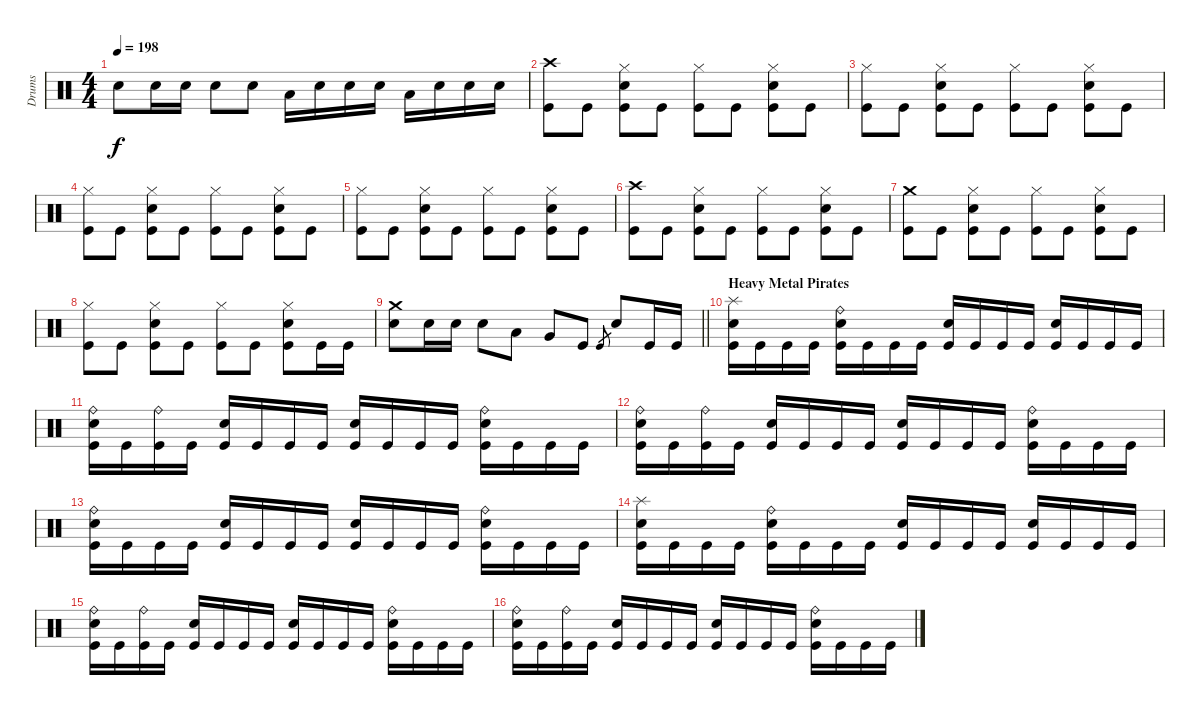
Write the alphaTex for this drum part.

\track ("Drums" "Drums") {instrument percussion}
\staff {score}
\articulation defaults
\ts (4 4)
\tempo 198
\clef neutral
\ks c "Electric Snare (hit)".8{dy f} "Electric Snare (hit)".16 "Electric Snare (hit)".16 "Electric Snare (hit)".8 "Electric Snare (hit)".8 "Low Tom (hit)".16 "Electric Snare (hit)".16 "Electric Snare (hit)".16 "Electric Snare (hit)".16 "Low Tom (hit)".16 "Electric Snare (hit)".16 "Electric Snare (hit)".16 "Electric Snare (hit)".16
|
("Crash high (hit)" "Kick (hit)").8 "Kick (hit)".8 ("Hi-Hat (closed)" "Electric Snare (hit)" "Kick (hit)").8 "Kick (hit)".8 ("Hi-Hat (closed)" "Kick (hit)").8 "Kick (hit)".8 ("Hi-Hat (closed)" "Electric Snare (hit)" "Kick (hit)").8 "Kick (hit)".8 |
("Hi-Hat (closed)" "Kick (hit)").8 "Kick (hit)".8 ("Hi-Hat (closed)" "Electric Snare (hit)" "Kick (hit)").8 "Kick (hit)".8 ("Hi-Hat (closed)" "Kick (hit)").8 "Kick (hit)".8 ("Hi-Hat (closed)" "Electric Snare (hit)" "Kick (hit)").8 "Kick (hit)".8 |
("Hi-Hat (closed)" "Kick (hit)").8 "Kick (hit)".8 ("Hi-Hat (closed)" "Electric Snare (hit)" "Kick (hit)").8 "Kick (hit)".8 ("Hi-Hat (closed)" "Kick (hit)").8 "Kick (hit)".8 ("Hi-Hat (closed)" "Electric Snare (hit)" "Kick (hit)").8 "Kick (hit)".8 |
("Hi-Hat (closed)" "Kick (hit)").8 "Kick (hit)".8 ("Hi-Hat (closed)" "Electric Snare (hit)" "Kick (hit)").8 "Kick (hit)".8 ("Hi-Hat (closed)" "Kick (hit)").8 "Kick (hit)".8 ("Hi-Hat (closed)" "Electric Snare (hit)" "Kick (hit)").8 "Kick (hit)".8 |
("Crash high (hit)" "Kick (hit)").8 "Kick (hit)".8 ("Hi-Hat (closed)" "Electric Snare (hit)" "Kick (hit)").8 "Kick (hit)".8 ("Hi-Hat (closed)" "Kick (hit)").8 "Kick (hit)".8 ("Hi-Hat (closed)" "Electric Snare (hit)" "Kick (hit)").8 "Kick (hit)".8 |
("Crash medium (hit)" "Kick (hit)").8 "Kick (hit)".8 ("Hi-Hat (closed)" "Electric Snare (hit)" "Kick (hit)").8 "Kick (hit)".8 ("Hi-Hat (closed)" "Kick (hit)").8 "Kick (hit)".8 ("Hi-Hat (closed)" "Electric Snare (hit)" "Kick (hit)").8 "Kick (hit)".8 |
("Hi-Hat (closed)" "Kick (hit)").8 "Kick (hit)".8 ("Hi-Hat (closed)" "Electric Snare (hit)" "Kick (hit)").8 "Kick (hit)".8 ("Hi-Hat (closed)" "Kick (hit)").8 "Kick (hit)".8 ("Hi-Hat (closed)" "Electric Snare (hit)" "Kick (hit)").8 "Kick (hit)".16 "Kick (hit)".16 |
\barLineRight lightlight
("Crash medium (hit)" "Electric Snare (hit)").8 "Electric Snare (hit)".16 "Electric Snare (hit)".16 "Electric Snare (hit)".8 "Low Tom (hit)".8 "Very Low Tom (hit)".8 "Kick (hit)".8 "Kick (hit)".8{gr} "Electric Snare (hit)".8 "Kick (hit)".16 "Kick (hit)".16 |
\section ("" "Heavy Metal Pirates")
("Splash (hit)" "Electric Snare (hit)" "Kick (hit)").16 "Kick (hit)".16 "Kick (hit)".16 "Kick (hit)".16 ("Ride (bell)" "Electric Snare (hit)" "Kick (hit)").16 "Kick (hit)".16 "Kick (hit)".16 "Kick (hit)".16 ("Electric Snare (hit)" "Kick (hit)").16 "Kick (hit)".16 "Kick (hit)".16 "Kick (hit)".16 ("Electric Snare (hit)" "Kick (hit)").16 "Kick (hit)".16 "Kick (hit)".16 "Kick (hit)".16 |
("Ride (bell)" "Electric Snare (hit)" "Kick (hit)").16 "Kick (hit)".16 ("Ride (bell)" "Kick (hit)").16 "Kick (hit)".16 ("Electric Snare (hit)" "Kick (hit)").16 "Kick (hit)".16 "Kick (hit)".16 "Kick (hit)".16 ("Electric Snare (hit)" "Kick (hit)").16 "Kick (hit)".16 "Kick (hit)".16 "Kick (hit)".16 ("Ride (bell)" "Electric Snare (hit)" "Kick (hit)").16 "Kick (hit)".16 "Kick (hit)".16 "Kick (hit)".16 |
("Ride (bell)" "Electric Snare (hit)" "Kick (hit)").16 "Kick (hit)".16 ("Ride (bell)" "Kick (hit)").16 "Kick (hit)".16 ("Electric Snare (hit)" "Kick (hit)").16 "Kick (hit)".16 "Kick (hit)".16 "Kick (hit)".16 ("Electric Snare (hit)" "Kick (hit)").16 "Kick (hit)".16 "Kick (hit)".16 "Kick (hit)".16 ("Ride (bell)" "Electric Snare (hit)" "Kick (hit)").16 "Kick (hit)".16 "Kick (hit)".16 "Kick (hit)".16 |
("Ride (bell)" "Electric Snare (hit)" "Kick (hit)").16 "Kick (hit)".16 "Kick (hit)".16 "Kick (hit)".16 ("Electric Snare (hit)" "Kick (hit)").16 "Kick (hit)".16 "Kick (hit)".16 "Kick (hit)".16 ("Electric Snare (hit)" "Kick (hit)").16 "Kick (hit)".16 "Kick (hit)".16 "Kick (hit)".16 ("Ride (bell)" "Electric Snare (hit)" "Kick (hit)").16 "Kick (hit)".16 "Kick (hit)".16 "Kick (hit)".16 |
("Splash (hit)" "Electric Snare (hit)" "Kick (hit)").16 "Kick (hit)".16 "Kick (hit)".16 "Kick (hit)".16 ("Ride (bell)" "Electric Snare (hit)" "Kick (hit)").16 "Kick (hit)".16 "Kick (hit)".16 "Kick (hit)".16 ("Electric Snare (hit)" "Kick (hit)").16 "Kick (hit)".16 "Kick (hit)".16 "Kick (hit)".16 ("Electric Snare (hit)" "Kick (hit)").16 "Kick (hit)".16 "Kick (hit)".16 "Kick (hit)".16 |
("Ride (bell)" "Electric Snare (hit)" "Kick (hit)").16 "Kick (hit)".16 ("Ride (bell)" "Kick (hit)").16 "Kick (hit)".16 ("Electric Snare (hit)" "Kick (hit)").16 "Kick (hit)".16 "Kick (hit)".16 "Kick (hit)".16 ("Electric Snare (hit)" "Kick (hit)").16 "Kick (hit)".16 "Kick (hit)".16 "Kick (hit)".16 ("Ride (bell)" "Electric Snare (hit)" "Kick (hit)").16 "Kick (hit)".16 "Kick (hit)".16 "Kick (hit)".16 |
("Ride (bell)" "Electric Snare (hit)" "Kick (hit)").16 "Kick (hit)".16 ("Ride (bell)" "Kick (hit)").16 "Kick (hit)".16 ("Electric Snare (hit)" "Kick (hit)").16 "Kick (hit)".16 "Kick (hit)".16 "Kick (hit)".16 ("Electric Snare (hit)" "Kick (hit)").16 "Kick (hit)".16 "Kick (hit)".16 "Kick (hit)".16 ("Ride (bell)" "Electric Snare (hit)" "Kick (hit)").16 "Kick (hit)".16 "Kick (hit)".16 "Kick (hit)".16
